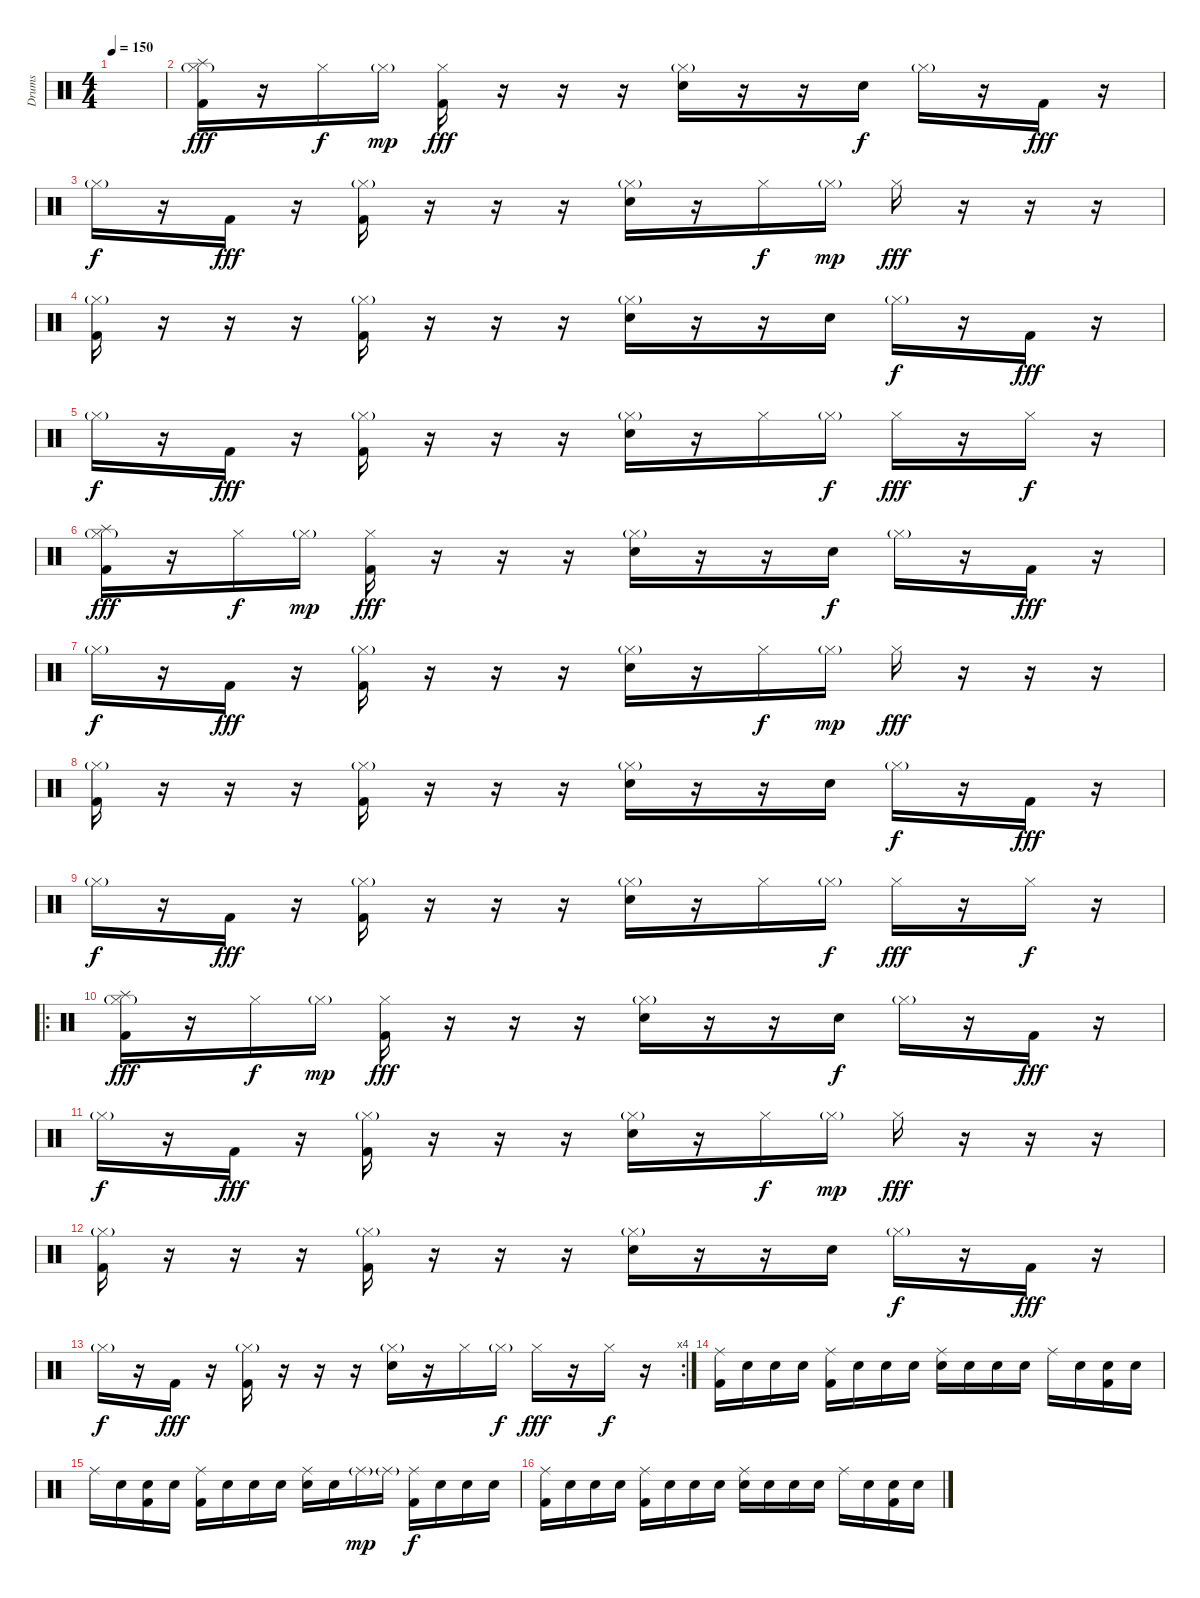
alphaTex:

\track ("Drums" "Drums") {instrument percussion}
\staff {score}
\articulation defaults
\ts (4 4)
\tempo 150
\clef neutral
\ks c
|
("Hi-Hat (closed)"{g} "Splash (hit)" "Kick (hit) 2").16{dy fff} r.16 "Hi-Hat (closed)".16{dy f} "Hi-Hat (closed)"{g}.16{dy mp} ("Hi-Hat (closed)" "Kick (hit) 2").16{dy fff} r.16 r.16 r.16 ("Hi-Hat (closed)"{g} "Electric Snare (hit)").16 r.16 r.16 "Electric Snare (hit)".16{dy f} "Hi-Hat (closed)"{g}.16 r.16 "Kick (hit) 2".16{dy fff} r.16 |
"Hi-Hat (closed)"{g}.16{dy f} r.16 "Kick (hit) 2".16{dy fff} r.16 ("Hi-Hat (closed)"{g} "Kick (hit) 2").16 r.16 r.16 r.16 ("Hi-Hat (closed)"{g} "Electric Snare (hit)").16 r.16 "Hi-Hat (closed)".16{dy f} "Hi-Hat (closed)"{g}.16{dy mp} "Hi-Hat (closed)".16{dy fff} r.16 r.16 r.16 |
("Hi-Hat (closed)"{g} "Kick (hit) 2").16 r.16 r.16 r.16 ("Hi-Hat (closed)"{g} "Kick (hit) 2").16 r.16 r.16 r.16 ("Hi-Hat (closed)"{g} "Electric Snare (hit)").16 r.16 r.16 "Electric Snare (hit)".16 "Hi-Hat (closed)"{g}.16{dy f} r.16 "Kick (hit) 2".16{dy fff} r.16 |
"Hi-Hat (closed)"{g}.16{dy f} r.16 "Kick (hit) 2".16{dy fff} r.16 ("Hi-Hat (closed)"{g} "Kick (hit) 2").16 r.16 r.16 r.16 ("Hi-Hat (closed)"{g} "Electric Snare (hit)").16 r.16 "Hi-Hat (closed)".16 "Hi-Hat (closed)"{g}.16{dy f} "Hi-Hat (closed)".16{dy fff} r.16 "Hi-Hat (closed)".16{dy f} r.16 |
("Hi-Hat (closed)"{g} "Splash (hit)" "Kick (hit) 2").16{dy fff} r.16 "Hi-Hat (closed)".16{dy f} "Hi-Hat (closed)"{g}.16{dy mp} ("Hi-Hat (closed)" "Kick (hit) 2").16{dy fff} r.16 r.16 r.16 ("Hi-Hat (closed)"{g} "Electric Snare (hit)").16 r.16 r.16 "Electric Snare (hit)".16{dy f} "Hi-Hat (closed)"{g}.16 r.16 "Kick (hit) 2".16{dy fff} r.16 |
"Hi-Hat (closed)"{g}.16{dy f} r.16 "Kick (hit) 2".16{dy fff} r.16 ("Hi-Hat (closed)"{g} "Kick (hit) 2").16 r.16 r.16 r.16 ("Hi-Hat (closed)"{g} "Electric Snare (hit)").16 r.16 "Hi-Hat (closed)".16{dy f} "Hi-Hat (closed)"{g}.16{dy mp} "Hi-Hat (closed)".16{dy fff} r.16 r.16 r.16 |
("Hi-Hat (closed)"{g} "Kick (hit) 2").16 r.16 r.16 r.16 ("Hi-Hat (closed)"{g} "Kick (hit) 2").16 r.16 r.16 r.16 ("Hi-Hat (closed)"{g} "Electric Snare (hit)").16 r.16 r.16 "Electric Snare (hit)".16 "Hi-Hat (closed)"{g}.16{dy f} r.16 "Kick (hit) 2".16{dy fff} r.16 |
"Hi-Hat (closed)"{g}.16{dy f} r.16 "Kick (hit) 2".16{dy fff} r.16 ("Hi-Hat (closed)"{g} "Kick (hit) 2").16 r.16 r.16 r.16 ("Hi-Hat (closed)"{g} "Electric Snare (hit)").16 r.16 "Hi-Hat (closed)".16 "Hi-Hat (closed)"{g}.16{dy f} "Hi-Hat (closed)".16{dy fff} r.16 "Hi-Hat (closed)".16{dy f} r.16 |
\ro
("Hi-Hat (closed)"{g} "Splash (hit)" "Kick (hit) 2").16{dy fff} r.16 "Hi-Hat (closed)".16{dy f} "Hi-Hat (closed)"{g}.16{dy mp} ("Hi-Hat (closed)" "Kick (hit) 2").16{dy fff} r.16 r.16 r.16 ("Hi-Hat (closed)"{g} "Electric Snare (hit)").16 r.16 r.16 "Electric Snare (hit)".16{dy f} "Hi-Hat (closed)"{g}.16 r.16 "Kick (hit) 2".16{dy fff} r.16 |
"Hi-Hat (closed)"{g}.16{dy f} r.16 "Kick (hit) 2".16{dy fff} r.16 ("Hi-Hat (closed)"{g} "Kick (hit) 2").16 r.16 r.16 r.16 ("Hi-Hat (closed)"{g} "Electric Snare (hit)").16 r.16 "Hi-Hat (closed)".16{dy f} "Hi-Hat (closed)"{g}.16{dy mp} "Hi-Hat (closed)".16{dy fff} r.16 r.16 r.16 |
("Hi-Hat (closed)"{g} "Kick (hit) 2").16 r.16 r.16 r.16 ("Hi-Hat (closed)"{g} "Kick (hit) 2").16 r.16 r.16 r.16 ("Hi-Hat (closed)"{g} "Electric Snare (hit)").16 r.16 r.16 "Electric Snare (hit)".16 "Hi-Hat (closed)"{g}.16{dy f} r.16 "Kick (hit) 2".16{dy fff} r.16 |
\rc 4 "Hi-Hat (closed)"{g}.16{dy f}
r.16 "Kick (hit) 2".16{dy fff} r.16 ("Hi-Hat (closed)"{g} "Kick (hit) 2").16 r.16 r.16 r.16 ("Hi-Hat (closed)"{g} "Electric Snare (hit)").16 r.16 "Hi-Hat (closed)".16 "Hi-Hat (closed)"{g}.16{dy f} "Hi-Hat (closed)".16{dy fff} r.16 "Hi-Hat (closed)".16{dy f} r.16 |
("Ride (middle)" "Kick (hit) 2").16 "Snare (hit)".16 "Snare (hit)".16 "Snare (hit)".16 ("Ride (middle)" "Kick (hit) 2").16 "Snare (hit)".16 "Snare (hit)".16 "Snare (hit)".16 ("Ride (middle)" "Electric Snare (hit)").16 "Snare (hit)".16 "Snare (hit)".16 "Snare (hit)".16 "Ride (middle)".16 "Snare (hit)".16 ("Snare (hit)" "Kick (hit) 2").16 "Snare (hit)".16 |
"Ride (middle)".16 "Snare (hit)".16 ("Snare (hit)" "Kick (hit) 2").16 "Snare (hit)".16 ("Ride (middle)" "Kick (hit) 2").16 "Snare (hit)".16 "Snare (hit)".16 "Snare (hit)".16 ("Ride (middle)" "Electric Snare (hit)").16 "Snare (hit)".16 "Ride (middle)"{g}.16{dy mp} "Ride (middle)"{g}.16 ("Ride (middle)" "Kick (hit) 2").16{dy f} "Snare (hit)".16 "Snare (hit)".16 "Snare (hit)".16 |
("Ride (middle)" "Kick (hit) 2").16 "Snare (hit)".16 "Snare (hit)".16 "Snare (hit)".16 ("Ride (middle)" "Kick (hit) 2").16 "Snare (hit)".16 "Snare (hit)".16 "Snare (hit)".16 ("Ride (middle)" "Electric Snare (hit)").16 "Snare (hit)".16 "Snare (hit)".16 "Snare (hit)".16 "Ride (middle)".16 "Snare (hit)".16 ("Snare (hit)" "Kick (hit) 2").16 "Snare (hit)".16
